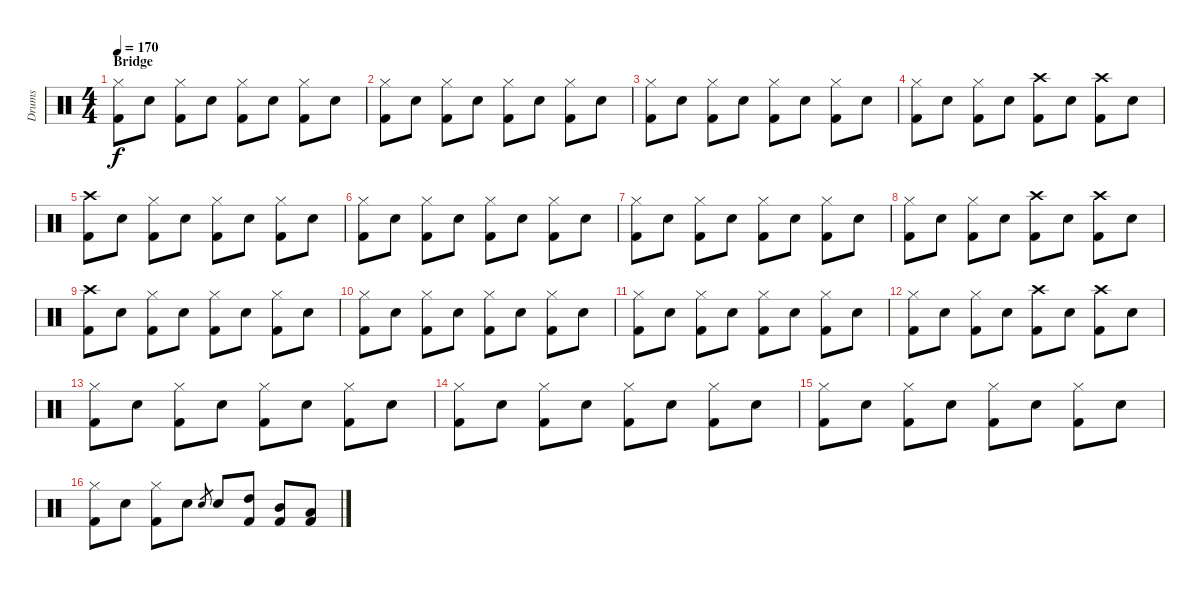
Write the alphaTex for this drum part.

\track ("Drums" "Drums") {instrument percussion}
\staff {score}
\articulation defaults
\ts (4 4)
\section ("" "Bridge")
\tempo 170
\clef neutral
\ks c
("Hi-Hat (closed)" "Kick (hit) 2").8{dy f} "Electric Snare (hit)".8 ("Hi-Hat (closed)" "Kick (hit) 2").8 "Electric Snare (hit)".8 ("Hi-Hat (closed)" "Kick (hit) 2").8 "Electric Snare (hit)".8 ("Hi-Hat (closed)" "Kick (hit) 2").8 "Electric Snare (hit)".8 |
("Hi-Hat (closed)" "Kick (hit) 2").8 "Electric Snare (hit)".8 ("Hi-Hat (closed)" "Kick (hit) 2").8 "Electric Snare (hit)".8 ("Hi-Hat (closed)" "Kick (hit) 2").8 "Electric Snare (hit)".8 ("Hi-Hat (closed)" "Kick (hit) 2").8 "Electric Snare (hit)".8 |
("Hi-Hat (closed)" "Kick (hit) 2").8 "Electric Snare (hit)".8 ("Hi-Hat (closed)" "Kick (hit) 2").8 "Electric Snare (hit)".8 ("Hi-Hat (closed)" "Kick (hit) 2").8 "Electric Snare (hit)".8 ("Hi-Hat (closed)" "Kick (hit) 2").8 "Electric Snare (hit)".8 |
("Hi-Hat (closed)" "Kick (hit) 2").8 "Electric Snare (hit)".8 ("Hi-Hat (closed)" "Kick (hit) 2").8 "Electric Snare (hit)".8 ("Crash high (hit)" "Kick (hit) 2").8 "Electric Snare (hit)".8 ("Crash high (hit)" "Kick (hit) 2").8 "Electric Snare (hit)".8 |
("Crash high (hit)" "Kick (hit) 2").8 "Electric Snare (hit)".8 ("Hi-Hat (closed)" "Kick (hit) 2").8 "Electric Snare (hit)".8 ("Hi-Hat (closed)" "Kick (hit) 2").8 "Electric Snare (hit)".8 ("Hi-Hat (closed)" "Kick (hit) 2").8 "Electric Snare (hit)".8 |
("Hi-Hat (closed)" "Kick (hit) 2").8 "Electric Snare (hit)".8 ("Hi-Hat (closed)" "Kick (hit) 2").8 "Electric Snare (hit)".8 ("Hi-Hat (closed)" "Kick (hit) 2").8 "Electric Snare (hit)".8 ("Hi-Hat (closed)" "Kick (hit) 2").8 "Electric Snare (hit)".8 |
("Hi-Hat (closed)" "Kick (hit) 2").8 "Electric Snare (hit)".8 ("Hi-Hat (closed)" "Kick (hit) 2").8 "Electric Snare (hit)".8 ("Hi-Hat (closed)" "Kick (hit) 2").8 "Electric Snare (hit)".8 ("Hi-Hat (closed)" "Kick (hit) 2").8 "Electric Snare (hit)".8 |
("Hi-Hat (closed)" "Kick (hit) 2").8 "Electric Snare (hit)".8 ("Hi-Hat (closed)" "Kick (hit) 2").8 "Electric Snare (hit)".8 ("Crash high (hit)" "Kick (hit) 2").8 "Electric Snare (hit)".8 ("Crash high (hit)" "Kick (hit) 2").8 "Electric Snare (hit)".8 |
("Crash high (hit)" "Kick (hit) 2").8 "Electric Snare (hit)".8 ("Hi-Hat (closed)" "Kick (hit) 2").8 "Electric Snare (hit)".8 ("Hi-Hat (closed)" "Kick (hit) 2").8 "Electric Snare (hit)".8 ("Hi-Hat (closed)" "Kick (hit) 2").8 "Electric Snare (hit)".8 |
("Hi-Hat (closed)" "Kick (hit) 2").8 "Electric Snare (hit)".8 ("Hi-Hat (closed)" "Kick (hit) 2").8 "Electric Snare (hit)".8 ("Hi-Hat (closed)" "Kick (hit) 2").8 "Electric Snare (hit)".8 ("Hi-Hat (closed)" "Kick (hit) 2").8 "Electric Snare (hit)".8 |
("Hi-Hat (closed)" "Kick (hit) 2").8 "Electric Snare (hit)".8 ("Hi-Hat (closed)" "Kick (hit) 2").8 "Electric Snare (hit)".8 ("Hi-Hat (closed)" "Kick (hit) 2").8 "Electric Snare (hit)".8 ("Hi-Hat (closed)" "Kick (hit) 2").8 "Electric Snare (hit)".8 |
("Hi-Hat (closed)" "Kick (hit) 2").8 "Electric Snare (hit)".8 ("Hi-Hat (closed)" "Kick (hit) 2").8 "Electric Snare (hit)".8 ("Crash high (hit)" "Kick (hit) 2").8 "Electric Snare (hit)".8 ("Crash high (hit)" "Kick (hit) 2").8 "Electric Snare (hit)".8 |
("Hi-Hat (closed)" "Kick (hit) 2").8 "Electric Snare (hit)".8 ("Hi-Hat (closed)" "Kick (hit) 2").8 "Electric Snare (hit)".8 ("Hi-Hat (closed)" "Kick (hit) 2").8 "Electric Snare (hit)".8 ("Hi-Hat (closed)" "Kick (hit) 2").8 "Electric Snare (hit)".8 |
("Hi-Hat (closed)" "Kick (hit) 2").8 "Electric Snare (hit)".8 ("Hi-Hat (closed)" "Kick (hit) 2").8 "Electric Snare (hit)".8 ("Hi-Hat (closed)" "Kick (hit) 2").8 "Electric Snare (hit)".8 ("Hi-Hat (closed)" "Kick (hit) 2").8 "Electric Snare (hit)".8 |
("Hi-Hat (closed)" "Kick (hit) 2").8 "Electric Snare (hit)".8 ("Hi-Hat (closed)" "Kick (hit) 2").8 "Electric Snare (hit)".8 ("Hi-Hat (closed)" "Kick (hit) 2").8 "Electric Snare (hit)".8 ("Hi-Hat (closed)" "Kick (hit) 2").8 "Electric Snare (hit)".8 |
("Hi-Hat (closed)" "Kick (hit) 2").8 "Electric Snare (hit)".8 ("Hi-Hat (closed)" "Kick (hit) 2").8 "Electric Snare (hit)".8 "Electric Snare (hit)".8{gr} "Electric Snare (hit)".8 ("High Tom (hit)" "Kick (hit) 2").8 ("Mid Tom (hit)" "Kick (hit) 2").8 ("Low Tom (hit)" "Kick (hit) 2").8
